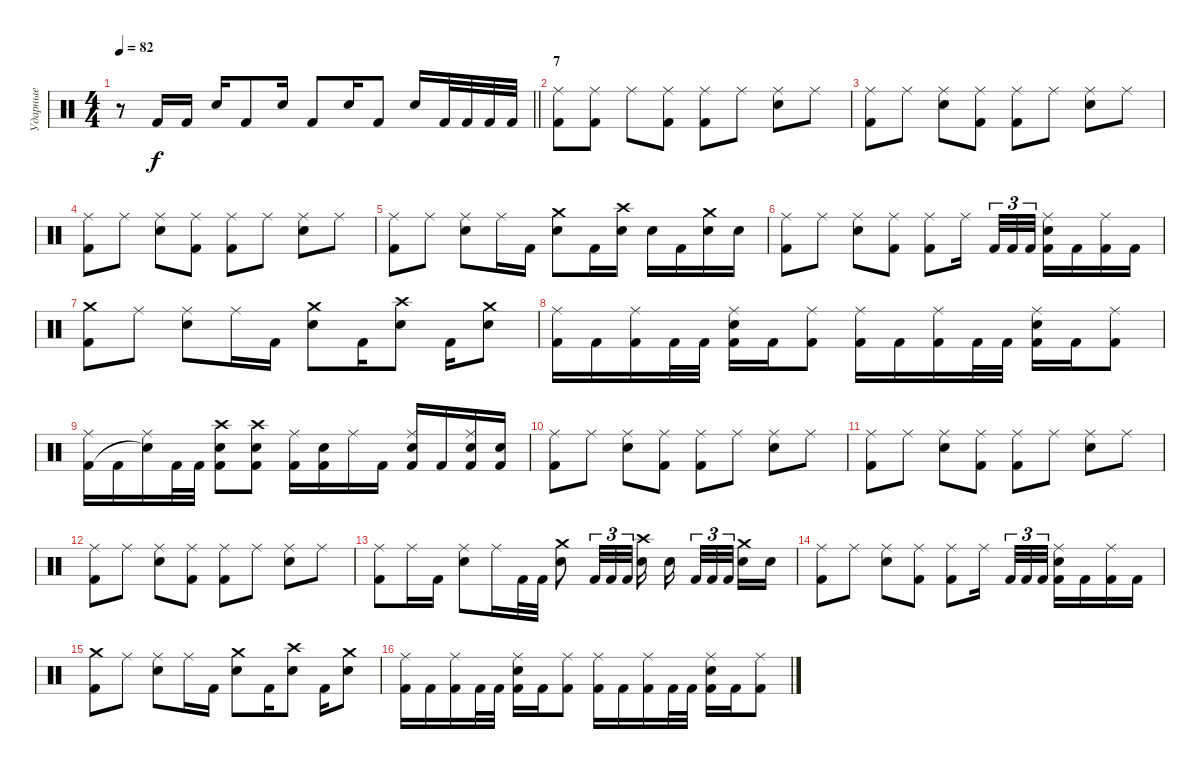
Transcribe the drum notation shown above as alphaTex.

\track ("Ударные" "Ударные") {mute instrument percussion}
\staff {score}
\articulation defaults
\ts (4 4)
\tempo 82
\clef neutral
\barLineRight lightlight
\ks c
r.8{dy f} "Kick (hit) 2".16 "Kick (hit) 2".16 "Snare (hit) 2".16 "Kick (hit) 2".8 "Snare (hit) 2".16 "Kick (hit) 2".8 "Snare (hit) 2".16 "Kick (hit) 2".8 "Snare (hit) 2".16 "Kick (hit) 2".32 "Kick (hit) 2".32 "Kick (hit) 2".32 "Kick (hit) 2".32 |
\section ("" "7")
("Ride (middle)" "Kick (hit) 2").8 ("Ride (middle)" "Kick (hit) 2").8 "Ride (middle)".8 ("Ride (middle)" "Kick (hit) 2").8 ("Ride (middle)" "Kick (hit) 2").8 "Ride (middle)".8 ("Ride (middle)" "Electric Snare (hit)").8 "Ride (middle)".8 |
("Ride (middle)" "Kick (hit) 2").8 "Ride (middle)".8 ("Ride (middle)" "Electric Snare (hit)").8 ("Ride (middle)" "Kick (hit) 2").8 ("Ride (middle)" "Kick (hit) 2").8 "Ride (middle)".8 ("Ride (middle)" "Electric Snare (hit)").8 "Ride (middle)".8 |
("Ride (middle)" "Kick (hit) 2").8 "Ride (middle)".8 ("Ride (middle)" "Electric Snare (hit)").8 ("Ride (middle)" "Kick (hit) 2").8 ("Ride (middle)" "Kick (hit) 2").8 "Ride (middle)".8 ("Ride (middle)" "Electric Snare (hit)").8 "Ride (middle)".8 |
("Ride (middle)" "Kick (hit) 2").8 "Ride (middle)".8 ("Ride (middle)" "Electric Snare (hit)").8 "Ride (middle)".16 "Kick (hit) 2".16 ("Crash medium (hit)" "Electric Snare (hit)").8 "Kick (hit) 2".16 ("Crash high (hit)" "Electric Snare (hit)").16 "Electric Snare (hit)".16 "Kick (hit) 2".16 ("Crash medium (hit)" "Electric Snare (hit)").16 "Electric Snare (hit)".16 |
("Ride (middle)" "Kick (hit) 2").8 "Ride (middle)".8 ("Ride (middle)" "Electric Snare (hit)").8 ("Ride (middle)" "Kick (hit) 2").8 ("Ride (middle)" "Kick (hit) 2").8 "Ride (middle)".16{beam splitsecondary} "Kick (hit) 2".32{tu (3 2)} "Kick (hit) 2".32{tu (3 2)} "Kick (hit) 2".32{tu (3 2)} ("Ride (middle)" "Electric Snare (hit)" "Kick (hit) 2").16 "Kick (hit) 2".16 ("Ride (middle)" "Kick (hit) 2").16 "Kick (hit) 2".16 |
("Crash medium (hit)" "Kick (hit) 2").8 "Ride (middle)".8 ("Ride (middle)" "Electric Snare (hit)").8 "Ride (middle)".16 "Kick (hit) 2".16 ("Crash medium (hit)" "Electric Snare (hit)").8 "Kick (hit) 2".16 ("Crash high (hit)" "Electric Snare (hit)").8 "Kick (hit) 2".16 ("Crash medium (hit)" "Electric Snare (hit)").8 |
("Ride (middle)" "Kick (hit) 2").16 "Kick (hit) 2".16 ("Ride (middle)" "Kick (hit) 2").16 "Kick (hit) 2".32 "Kick (hit) 2".32 ("Ride (middle)" "Electric Snare (hit)" "Kick (hit) 2").16 "Kick (hit) 2".16 ("Ride (middle)" "Kick (hit) 2").8 ("Ride (middle)" "Kick (hit) 2").16 "Kick (hit) 2".16 ("Ride (middle)" "Kick (hit) 2").16 "Kick (hit) 2".32 "Kick (hit) 2".32 ("Ride (middle)" "Electric Snare (hit)" "Kick (hit) 2").16 "Kick (hit) 2".16 ("Ride (middle)" "Kick (hit) 2").8 |
("Ride (middle)" "Kick (hit) 2").16 "Kick (hit) 2".16 ("Ride (middle)" "Snare (hit)"{t}).16 "Kick (hit) 2".32 "Kick (hit) 2".32 ("Crash high (hit)" "Electric Snare (hit)" "Kick (hit) 2").8 ("Crash high (hit)" "Electric Snare (hit)" "Kick (hit) 2").8 ("Ride (middle)" "Kick (hit) 2").16 ("Electric Snare (hit)" "Kick (hit) 2").16 "Ride (middle)".16 "Kick (hit) 2".16 ("Ride (middle)" "Electric Snare (hit)" "Kick (hit) 2").16 "Kick (hit) 2".16 ("Ride (middle)" "Electric Snare (hit)" "Kick (hit) 2").16 ("Electric Snare (hit)" "Kick (hit) 2").16 |
("Ride (middle)" "Kick (hit) 2").8 "Ride (middle)".8 ("Ride (middle)" "Electric Snare (hit)").8 ("Ride (middle)" "Kick (hit) 2").8 ("Ride (middle)" "Kick (hit) 2").8 "Ride (middle)".8 ("Ride (middle)" "Electric Snare (hit)").8 "Ride (middle)".8 |
("Ride (middle)" "Kick (hit) 2").8 "Ride (middle)".8 ("Ride (middle)" "Electric Snare (hit)").8 ("Ride (middle)" "Kick (hit) 2").8 ("Ride (middle)" "Kick (hit) 2").8 "Ride (middle)".8 ("Ride (middle)" "Electric Snare (hit)").8 "Ride (middle)".8 |
("Ride (middle)" "Kick (hit) 2").8 "Ride (middle)".8 ("Ride (middle)" "Electric Snare (hit)").8 ("Ride (middle)" "Kick (hit) 2").8 ("Ride (middle)" "Kick (hit) 2").8 "Ride (middle)".8 ("Ride (middle)" "Electric Snare (hit)").8 "Ride (middle)".8 |
("Ride (middle)" "Kick (hit) 2").8 "Ride (middle)".16 "Kick (hit) 2".16 ("Ride (middle)" "Electric Snare (hit)").8 "Ride (middle)".16 "Kick (hit) 2".32 "Kick (hit) 2".32 ("Crash medium (hit)" "Electric Snare (hit)").8 "Kick (hit) 2".32{tu (3 2)} "Kick (hit) 2".32{tu (3 2)} "Kick (hit) 2".32{tu (3 2) beam splitsecondary} ("Crash high (hit)" "Electric Snare (hit)").16 "Electric Snare (hit)".16{beam splitsecondary} "Kick (hit) 2".32{tu (3 2)} "Kick (hit) 2".32{tu (3 2)} "Kick (hit) 2".32{tu (3 2) beam splitsecondary} ("Crash medium (hit)" "Electric Snare (hit)").16 "Electric Snare (hit)".16 |
("Ride (middle)" "Kick (hit) 2").8 "Ride (middle)".8 ("Ride (middle)" "Electric Snare (hit)").8 ("Ride (middle)" "Kick (hit) 2").8 ("Ride (middle)" "Kick (hit) 2").8 "Ride (middle)".16{beam splitsecondary} "Kick (hit) 2".32{tu (3 2)} "Kick (hit) 2".32{tu (3 2)} "Kick (hit) 2".32{tu (3 2)} ("Ride (middle)" "Electric Snare (hit)" "Kick (hit) 2").16 "Kick (hit) 2".16 ("Ride (middle)" "Kick (hit) 2").16 "Kick (hit) 2".16 |
("Crash medium (hit)" "Kick (hit) 2").8 "Ride (middle)".8 ("Ride (middle)" "Electric Snare (hit)").8 "Ride (middle)".16 "Kick (hit) 2".16 ("Crash medium (hit)" "Electric Snare (hit)").8 "Kick (hit) 2".16 ("Crash high (hit)" "Electric Snare (hit)").8 "Kick (hit) 2".16 ("Crash medium (hit)" "Electric Snare (hit)").8 |
("Ride (middle)" "Kick (hit) 2").16 "Kick (hit) 2".16 ("Ride (middle)" "Kick (hit) 2").16 "Kick (hit) 2".32 "Kick (hit) 2".32 ("Ride (middle)" "Electric Snare (hit)" "Kick (hit) 2").16 "Kick (hit) 2".16 ("Ride (middle)" "Kick (hit) 2").8 ("Ride (middle)" "Kick (hit) 2").16 "Kick (hit) 2".16 ("Ride (middle)" "Kick (hit) 2").16 "Kick (hit) 2".32 "Kick (hit) 2".32 ("Ride (middle)" "Electric Snare (hit)" "Kick (hit) 2").16 "Kick (hit) 2".16 ("Ride (middle)" "Kick (hit) 2").8
